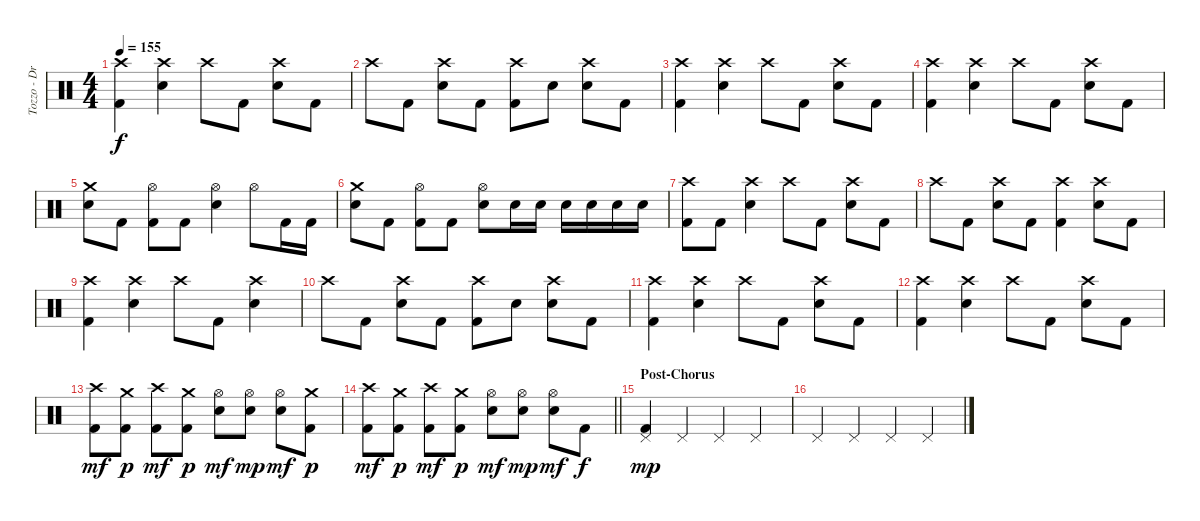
\track ("Tozzo - Drums" "Tozzo - Dr") {instrument percussion}
\staff {score}
\articulation defaults
\ts (4 4)
\tempo 155
\clef neutral
\ks c
("Crash high (hit)" "Kick (hit) 2").4{dy f} ("Crash high (hit)" "Snare (hit) 2").4 "Crash high (hit)".8 "Kick (hit) 2".8 ("Crash high (hit)" "Snare (hit) 2").8 "Kick (hit) 2".8 |
"Crash high (hit)".8 "Kick (hit) 2".8 ("Crash high (hit)" "Snare (hit) 2").8 "Kick (hit) 2".8 ("Crash high (hit)" "Kick (hit) 2").8 "Snare (hit) 2".8 ("Crash high (hit)" "Snare (hit) 2").8 "Kick (hit) 2".8 |
("Crash high (hit)" "Kick (hit) 2").4 ("Crash high (hit)" "Snare (hit) 2").4 "Crash high (hit)".8 "Kick (hit) 2".8 ("Crash high (hit)" "Snare (hit) 2").8 "Kick (hit) 2".8 |
("Crash high (hit)" "Kick (hit) 2").4 ("Crash high (hit)" "Snare (hit) 2").4 "Crash high (hit)".8 "Kick (hit) 2".8 ("Crash high (hit)" "Snare (hit) 2").8 "Kick (hit) 2".8 |
("Crash medium (hit)" "Snare (hit) 2").8 "Kick (hit) 2".8 ("Hi-Hat (open)" "Kick (hit) 2").8 "Kick (hit) 2".8 ("Hi-Hat (open)" "Snare (hit) 2").4 "Hi-Hat (open)".8 "Kick (hit) 2".16 "Kick (hit) 2".16 |
("Crash medium (hit)" "Snare (hit) 2").8 "Kick (hit) 2".8 ("Hi-Hat (open)" "Kick (hit) 2").8 "Kick (hit) 2".8 ("Hi-Hat (open)" "Snare (hit) 2").8 "Snare (hit) 2".16 "Snare (hit) 2".16 "Snare (hit) 2".16 "Snare (hit) 2".16 "Snare (hit) 2".16 "Snare (hit) 2".16 |
("Crash high (hit)" "Kick (hit) 2").8 "Kick (hit) 2".8 ("Crash high (hit)" "Snare (hit) 2").4 "Crash high (hit)".8 "Kick (hit) 2".8 ("Crash high (hit)" "Snare (hit) 2").8 "Kick (hit) 2".8 |
"Crash high (hit)".8 "Kick (hit) 2".8 ("Crash high (hit)" "Snare (hit) 2").8 "Kick (hit) 2".8 ("Crash high (hit)" "Kick (hit) 2").4 ("Crash high (hit)" "Snare (hit) 2").8 "Kick (hit) 2".8 |
("Crash high (hit)" "Kick (hit) 2").4 ("Crash high (hit)" "Snare (hit) 2").4 "Crash high (hit)".8 "Kick (hit) 2".8 ("Crash high (hit)" "Snare (hit) 2").4 |
"Crash high (hit)".8 "Kick (hit) 2".8 ("Crash high (hit)" "Snare (hit) 2").8 "Kick (hit) 2".8 ("Crash high (hit)" "Kick (hit) 2").8 "Snare (hit) 2".8 ("Crash high (hit)" "Snare (hit) 2").8 "Kick (hit) 2".8 |
("Crash high (hit)" "Kick (hit) 2").4 ("Crash high (hit)" "Snare (hit) 2").4 "Crash high (hit)".8 "Kick (hit) 2".8 ("Crash high (hit)" "Snare (hit) 2").8 "Kick (hit) 2".8 |
("Crash high (hit)" "Kick (hit) 2").4 ("Crash high (hit)" "Snare (hit) 2").4 "Crash high (hit)".8 "Kick (hit) 2".8 ("Crash high (hit)" "Snare (hit) 2").8 "Kick (hit) 2".8 |
("Crash high (hit)" "Kick (hit) 2").8{dy mf} ("Crash medium (hit)" "Kick (hit) 2").8{dy p} ("Crash high (hit)" "Kick (hit) 2").8{dy mf} ("Crash medium (hit)" "Kick (hit) 2").8{dy p} ("Hi-Hat (open)" "Snare (hit) 2").8{dy mf} ("Hi-Hat (open)" "Snare (hit) 2").8{dy mp} ("Hi-Hat (open)" "Snare (hit) 2").8{dy mf} ("Crash medium (hit)" "Kick (hit) 2").8{dy p} |
\barLineRight lightlight
("Crash high (hit)" "Kick (hit) 2").8{dy mf} ("Crash medium (hit)" "Kick (hit) 2").8{dy p} ("Crash high (hit)" "Kick (hit) 2").8{dy mf} ("Crash medium (hit)" "Kick (hit) 2").8{dy p} ("Hi-Hat (open)" "Snare (hit) 2").8{dy mf} ("Hi-Hat (open)" "Snare (hit) 2").8{dy mp} ("Hi-Hat (open)" "Snare (hit) 2").8{dy mf} "Kick (hit) 2".8{dy f} |
\section ("" "Post-Chorus")
("Pedal Hi-Hat (hit)" "Kick (hit) 2").4{dy mp} "Pedal Hi-Hat (hit)".4 "Pedal Hi-Hat (hit)".4 "Pedal Hi-Hat (hit)".4 |
"Pedal Hi-Hat (hit)".4 "Pedal Hi-Hat (hit)".4 "Pedal Hi-Hat (hit)".4 "Pedal Hi-Hat (hit)".4
